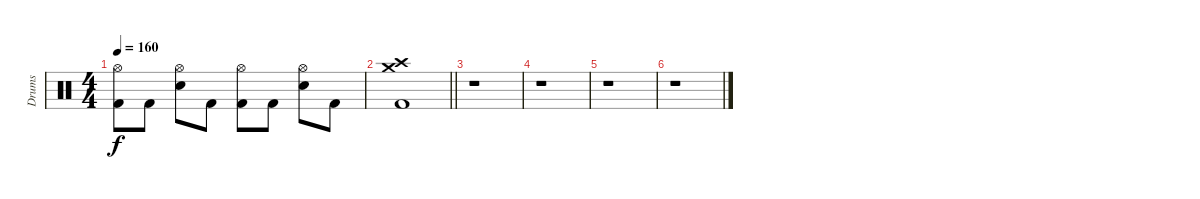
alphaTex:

\track ("Drums" "Drums") {instrument percussion}
\staff {score}
\articulation defaults
\ts (4 4)
\tempo 160
\clef neutral
\ks c
("Kick (hit) 2" "Hi-Hat (open)").8{dy f} "Kick (hit) 2".8 ("Electric Snare (hit)" "Hi-Hat (open)").8 "Kick (hit) 2".8 ("Kick (hit) 2" "Hi-Hat (open)").8 "Kick (hit) 2".8 ("Electric Snare (hit)" "Hi-Hat (open)").8 "Kick (hit) 2".8 |
\barLineRight lightlight
("Kick (hit) 2" "Crash high (hit)" "Crash medium (hit)").1 |
r.1 |
r.1 |
r.1 |
r.1
